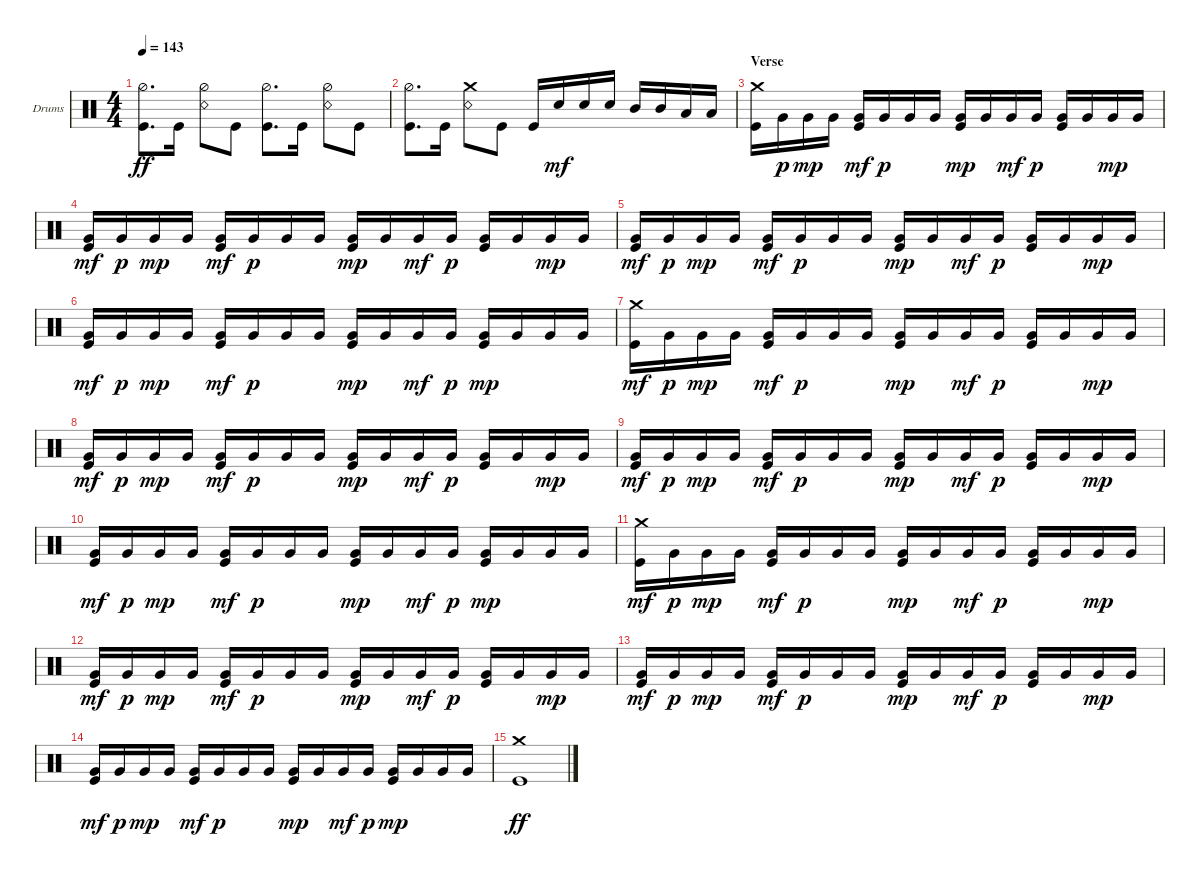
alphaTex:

\defaultSystemsLayout 4
\bracketExtendMode groupsimilarinstruments
\firstSystemTrackNameOrientation horizontal
\otherSystemsTrackNameOrientation horizontal
\track ("Nao - Drums" "Drums") {instrument percussion}
\staff {score}
\articulation defaults
\ts (4 4)
\tempo 143
\clef neutral
\ks c
("Kick (hit)" "Hi-Hat (half)").8{d dy ff} "Kick (hit)".16 ("Hi-Hat (half)" "Snare (rim shot)").8 "Kick (hit)".8 ("Kick (hit)" "Hi-Hat (half)").8{d} "Kick (hit)".16 ("Hi-Hat (half)" "Snare (rim shot)").8 "Kick (hit)".8 |
("Kick (hit)" "Hi-Hat (half)").8{d} "Kick (hit)".16 ("Snare (rim shot)" "Crash medium (hit)").8 "Kick (hit)".8 "Kick (hit)".16 "Snare (hit) 2".16{dy mf} "Snare (hit) 2".16 "Snare (hit) 2".16 "Mid Tom (hit)".16 "Mid Tom (hit)".16 "Low Tom (hit)".16 "Low Tom (hit)".16 |
\section ("" "Verse")
("Kick (hit)" "Crash medium (hit)").16 "Very Low Tom (hit)".16{dy p} "Very Low Tom (hit)".16{dy mp} "Very Low Tom (hit)".16 ("Very Low Tom (hit)" "Kick (hit)").16{dy mf} "Very Low Tom (hit)".16{dy p} "Very Low Tom (hit)".16 "Very Low Tom (hit)".16 ("Very Low Tom (hit)" "Kick (hit)").16{dy mp} "Very Low Tom (hit)".16 "Very Low Tom (hit)".16{dy mf} "Very Low Tom (hit)".16{dy p} ("Kick (hit)" "Very Low Tom (hit)").16 "Very Low Tom (hit)".16 "Very Low Tom (hit)".16{dy mp} "Very Low Tom (hit)".16 |
("Very Low Tom (hit)" "Kick (hit)").16{dy mf} "Very Low Tom (hit)".16{dy p} "Very Low Tom (hit)".16{dy mp} "Very Low Tom (hit)".16 ("Very Low Tom (hit)" "Kick (hit)").16{dy mf} "Very Low Tom (hit)".16{dy p} "Very Low Tom (hit)".16 "Very Low Tom (hit)".16 ("Very Low Tom (hit)" "Kick (hit)").16{dy mp} "Very Low Tom (hit)".16 "Very Low Tom (hit)".16{dy mf} "Very Low Tom (hit)".16{dy p} ("Kick (hit)" "Very Low Tom (hit)").16 "Very Low Tom (hit)".16 "Very Low Tom (hit)".16{dy mp} "Very Low Tom (hit)".16 |
("Very Low Tom (hit)" "Kick (hit)").16{dy mf} "Very Low Tom (hit)".16{dy p} "Very Low Tom (hit)".16{dy mp} "Very Low Tom (hit)".16 ("Very Low Tom (hit)" "Kick (hit)").16{dy mf} "Very Low Tom (hit)".16{dy p} "Very Low Tom (hit)".16 "Very Low Tom (hit)".16 ("Very Low Tom (hit)" "Kick (hit)").16{dy mp} "Very Low Tom (hit)".16 "Very Low Tom (hit)".16{dy mf} "Very Low Tom (hit)".16{dy p} ("Kick (hit)" "Very Low Tom (hit)").16 "Very Low Tom (hit)".16 "Very Low Tom (hit)".16{dy mp} "Very Low Tom (hit)".16 |
("Very Low Tom (hit)" "Kick (hit)").16{dy mf} "Very Low Tom (hit)".16{dy p} "Very Low Tom (hit)".16{dy mp} "Very Low Tom (hit)".16 ("Very Low Tom (hit)" "Kick (hit)").16{dy mf} "Very Low Tom (hit)".16{dy p} "Very Low Tom (hit)".16 "Very Low Tom (hit)".16 ("Very Low Tom (hit)" "Kick (hit)").16{dy mp} "Very Low Tom (hit)".16 "Very Low Tom (hit)".16{dy mf} "Very Low Tom (hit)".16{dy p} ("Kick (hit)" "Very Low Tom (hit)").16{dy mp} "Very Low Tom (hit)".16 "Very Low Tom (hit)".16 "Very Low Tom (hit)".16 |
("Kick (hit)" "Crash medium (hit)").16{dy mf} "Very Low Tom (hit)".16{dy p} "Very Low Tom (hit)".16{dy mp} "Very Low Tom (hit)".16 ("Very Low Tom (hit)" "Kick (hit)").16{dy mf} "Very Low Tom (hit)".16{dy p} "Very Low Tom (hit)".16 "Very Low Tom (hit)".16 ("Very Low Tom (hit)" "Kick (hit)").16{dy mp} "Very Low Tom (hit)".16 "Very Low Tom (hit)".16{dy mf} "Very Low Tom (hit)".16{dy p} ("Kick (hit)" "Very Low Tom (hit)").16 "Very Low Tom (hit)".16 "Very Low Tom (hit)".16{dy mp} "Very Low Tom (hit)".16 |
("Very Low Tom (hit)" "Kick (hit)").16{dy mf} "Very Low Tom (hit)".16{dy p} "Very Low Tom (hit)".16{dy mp} "Very Low Tom (hit)".16 ("Very Low Tom (hit)" "Kick (hit)").16{dy mf} "Very Low Tom (hit)".16{dy p} "Very Low Tom (hit)".16 "Very Low Tom (hit)".16 ("Very Low Tom (hit)" "Kick (hit)").16{dy mp} "Very Low Tom (hit)".16 "Very Low Tom (hit)".16{dy mf} "Very Low Tom (hit)".16{dy p} ("Kick (hit)" "Very Low Tom (hit)").16 "Very Low Tom (hit)".16 "Very Low Tom (hit)".16{dy mp} "Very Low Tom (hit)".16 |
("Very Low Tom (hit)" "Kick (hit)").16{dy mf} "Very Low Tom (hit)".16{dy p} "Very Low Tom (hit)".16{dy mp} "Very Low Tom (hit)".16 ("Very Low Tom (hit)" "Kick (hit)").16{dy mf} "Very Low Tom (hit)".16{dy p} "Very Low Tom (hit)".16 "Very Low Tom (hit)".16 ("Very Low Tom (hit)" "Kick (hit)").16{dy mp} "Very Low Tom (hit)".16 "Very Low Tom (hit)".16{dy mf} "Very Low Tom (hit)".16{dy p} ("Kick (hit)" "Very Low Tom (hit)").16 "Very Low Tom (hit)".16 "Very Low Tom (hit)".16{dy mp} "Very Low Tom (hit)".16 |
("Very Low Tom (hit)" "Kick (hit)").16{dy mf} "Very Low Tom (hit)".16{dy p} "Very Low Tom (hit)".16{dy mp} "Very Low Tom (hit)".16 ("Very Low Tom (hit)" "Kick (hit)").16{dy mf} "Very Low Tom (hit)".16{dy p} "Very Low Tom (hit)".16 "Very Low Tom (hit)".16 ("Very Low Tom (hit)" "Kick (hit)").16{dy mp} "Very Low Tom (hit)".16 "Very Low Tom (hit)".16{dy mf} "Very Low Tom (hit)".16{dy p} ("Kick (hit)" "Very Low Tom (hit)").16{dy mp} "Very Low Tom (hit)".16 "Very Low Tom (hit)".16 "Very Low Tom (hit)".16 |
("Kick (hit)" "Crash medium (hit)").16{dy mf} "Very Low Tom (hit)".16{dy p} "Very Low Tom (hit)".16{dy mp} "Very Low Tom (hit)".16 ("Very Low Tom (hit)" "Kick (hit)").16{dy mf} "Very Low Tom (hit)".16{dy p} "Very Low Tom (hit)".16 "Very Low Tom (hit)".16 ("Very Low Tom (hit)" "Kick (hit)").16{dy mp} "Very Low Tom (hit)".16 "Very Low Tom (hit)".16{dy mf} "Very Low Tom (hit)".16{dy p} ("Kick (hit)" "Very Low Tom (hit)").16 "Very Low Tom (hit)".16 "Very Low Tom (hit)".16{dy mp} "Very Low Tom (hit)".16 |
("Very Low Tom (hit)" "Kick (hit)").16{dy mf} "Very Low Tom (hit)".16{dy p} "Very Low Tom (hit)".16{dy mp} "Very Low Tom (hit)".16 ("Very Low Tom (hit)" "Kick (hit)").16{dy mf} "Very Low Tom (hit)".16{dy p} "Very Low Tom (hit)".16 "Very Low Tom (hit)".16 ("Very Low Tom (hit)" "Kick (hit)").16{dy mp} "Very Low Tom (hit)".16 "Very Low Tom (hit)".16{dy mf} "Very Low Tom (hit)".16{dy p} ("Kick (hit)" "Very Low Tom (hit)").16 "Very Low Tom (hit)".16 "Very Low Tom (hit)".16{dy mp} "Very Low Tom (hit)".16 |
("Very Low Tom (hit)" "Kick (hit)").16{dy mf} "Very Low Tom (hit)".16{dy p} "Very Low Tom (hit)".16{dy mp} "Very Low Tom (hit)".16 ("Very Low Tom (hit)" "Kick (hit)").16{dy mf} "Very Low Tom (hit)".16{dy p} "Very Low Tom (hit)".16 "Very Low Tom (hit)".16 ("Very Low Tom (hit)" "Kick (hit)").16{dy mp} "Very Low Tom (hit)".16 "Very Low Tom (hit)".16{dy mf} "Very Low Tom (hit)".16{dy p} ("Kick (hit)" "Very Low Tom (hit)").16 "Very Low Tom (hit)".16 "Very Low Tom (hit)".16{dy mp} "Very Low Tom (hit)".16 |
("Very Low Tom (hit)" "Kick (hit)").16{dy mf} "Very Low Tom (hit)".16{dy p} "Very Low Tom (hit)".16{dy mp} "Very Low Tom (hit)".16 ("Very Low Tom (hit)" "Kick (hit)").16{dy mf} "Very Low Tom (hit)".16{dy p} "Very Low Tom (hit)".16 "Very Low Tom (hit)".16 ("Very Low Tom (hit)" "Kick (hit)").16{dy mp} "Very Low Tom (hit)".16 "Very Low Tom (hit)".16{dy mf} "Very Low Tom (hit)".16{dy p} ("Kick (hit)" "Very Low Tom (hit)").16{dy mp} "Very Low Tom (hit)".16 "Very Low Tom (hit)".16 "Very Low Tom (hit)".16 |
("Crash medium (hit)" "Kick (hit)").1{dy ff}
